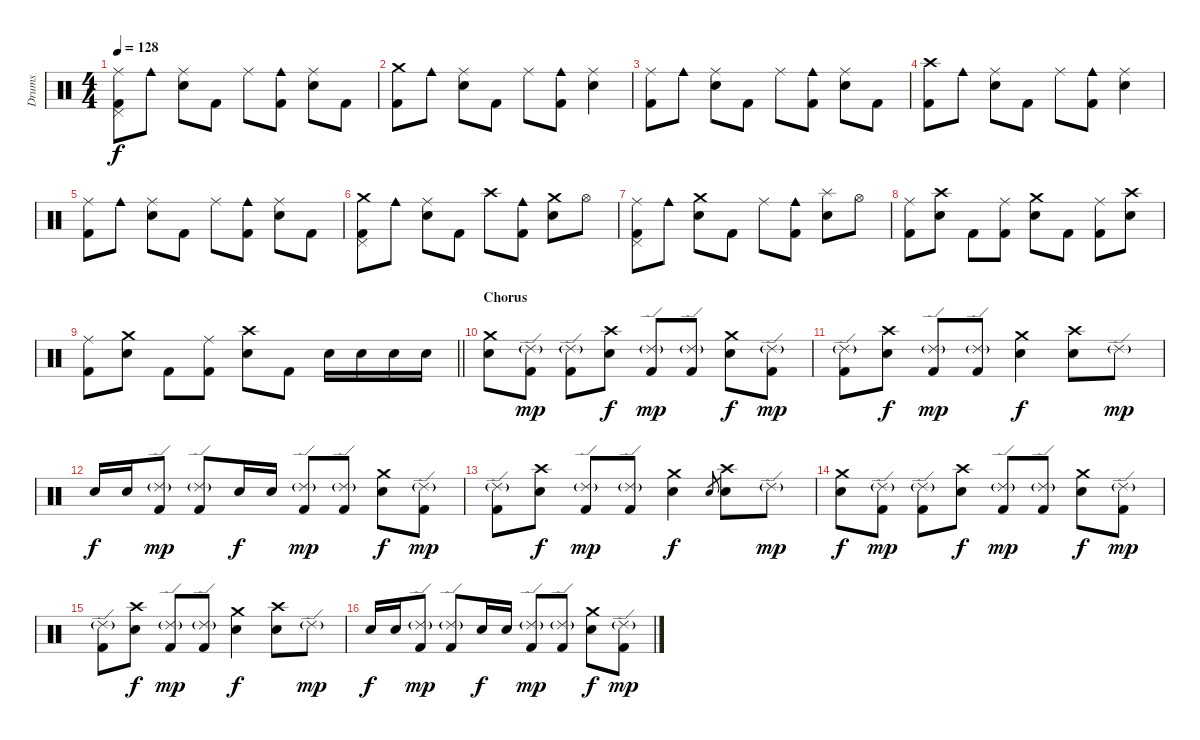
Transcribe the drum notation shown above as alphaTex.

\track ("Drums" "Drums") {instrument percussion}
\staff {score}
\articulation defaults
\ts (4 4)
\tempo 128
\clef neutral
\ks c
("Ride (middle)" "Pedal Hi-Hat (hit)" "Kick (hit) 2").8{dy f} "Cowbell medium (hit)".8 ("Ride (middle)" "Snare (hit) 2").8 "Kick (hit) 2".8 "Ride (middle)".8 ("Cowbell medium (hit)" "Kick (hit) 2").8 ("Ride (middle)" "Snare (hit) 2").8 "Kick (hit) 2".8 |
("Crash medium (hit)" "Kick (hit) 2").8 "Cowbell medium (hit)".8 ("Ride (middle)" "Snare (hit) 2").8 "Kick (hit) 2".8 "Ride (middle)".8 ("Cowbell medium (hit)" "Kick (hit) 2").8 ("Ride (middle)" "Snare (hit) 2").4 |
("Ride (middle)" "Kick (hit) 2").8 "Cowbell medium (hit)".8 ("Ride (middle)" "Snare (hit) 2").8 "Kick (hit) 2".8 "Ride (middle)".8 ("Cowbell medium (hit)" "Kick (hit) 2").8 ("Ride (middle)" "Snare (hit) 2").8 "Kick (hit) 2".8 |
("Crash high (hit)" "Kick (hit) 2").8 "Cowbell medium (hit)".8 ("Ride (middle)" "Snare (hit) 2").8 "Kick (hit) 2".8 "Ride (middle)".8 ("Cowbell medium (hit)" "Kick (hit) 2").8 ("Ride (middle)" "Snare (hit) 2").4 |
("Ride (middle)" "Kick (hit) 2").8 "Cowbell medium (hit)".8 ("Ride (middle)" "Snare (hit) 2").8 "Kick (hit) 2".8 "Ride (middle)".8 ("Cowbell medium (hit)" "Kick (hit) 2").8 ("Ride (middle)" "Snare (hit) 2").8 "Kick (hit) 2".8 |
("Crash medium (hit)" "Pedal Hi-Hat (hit)" "Kick (hit) 2").8 "Cowbell medium (hit)".8 ("Ride (middle)" "Snare (hit) 2").8 "Kick (hit) 2".8 "Crash high (hit)".8 ("Cowbell medium (hit)" "Kick (hit) 2").8 ("Crash medium (hit)" "Snare (hit) 2").8 "Hi-Hat (open)".8 |
("Ride (middle)" "Pedal Hi-Hat (hit)" "Kick (hit) 2").8 "Cowbell medium (hit)".8 ("Crash medium (hit)" "Snare (hit) 2").8 "Kick (hit) 2".8 "Ride (middle)".8 ("Cowbell medium (hit)" "Kick (hit) 2").8 ("Splash (hit)" "Snare (hit) 2").8 "Hi-Hat (open)".8 |
("Ride (middle)" "Kick (hit) 2").8 ("Crash high (hit)" "Snare (hit) 2").8 "Kick (hit) 2".8 ("Ride (middle)" "Kick (hit) 2").8 ("Crash medium (hit)" "Snare (hit) 2").8 "Kick (hit) 2".8 ("Ride (middle)" "Kick (hit) 2").8 ("Crash high (hit)" "Snare (hit) 2").8 |
\barLineRight lightlight
("Ride (middle)" "Kick (hit) 2").8 ("Crash medium (hit)" "Snare (hit) 2").8 "Kick (hit) 2".8 ("Ride (middle)" "Kick (hit) 2").8 ("Crash high (hit)" "Snare (hit) 2").8 "Kick (hit) 2".8 "Snare (hit) 2".16 "Snare (hit) 2".16 "Snare (hit) 2".16 "Snare (hit) 2".16 |
\section ("" "Chorus")
("Crash medium (hit)" "Snare (hit) 2").8 ("Ride (edge) 2"{g} "Kick (hit) 2").8{dy mp} ("Ride (edge) 2"{g} "Kick (hit) 2").8 ("Crash high (hit)" "Snare (hit) 2").8{dy f} ("Ride (edge) 2"{g} "Kick (hit) 2").8{dy mp} ("Ride (edge) 2"{g} "Kick (hit) 2").8 ("Crash medium (hit)" "Snare (hit) 2").8{dy f} ("Ride (edge) 2"{g} "Kick (hit) 2").8{dy mp} |
("Ride (edge) 2"{g} "Kick (hit) 2").8 ("Crash high (hit)" "Snare (hit) 2").8{dy f} ("Ride (edge) 2"{g} "Kick (hit) 2").8{dy mp} ("Ride (edge) 2"{g} "Kick (hit) 2").8 ("Crash medium (hit)" "Snare (hit) 2").4{dy f} ("Crash high (hit)" "Snare (hit) 2").8 "Ride (edge) 2"{g}.8{dy mp} |
"Snare (hit) 2".16{dy f} "Snare (hit) 2".16 ("Ride (edge) 2"{g} "Kick (hit) 2").8{dy mp} ("Ride (edge) 2"{g} "Kick (hit) 2").8 "Snare (hit) 2".16{dy f} "Snare (hit) 2".16 ("Ride (edge) 2"{g} "Kick (hit) 2").8{dy mp} ("Ride (edge) 2"{g} "Kick (hit) 2").8 ("Crash medium (hit)" "Snare (hit) 2").8{dy f} ("Ride (edge) 2"{g} "Kick (hit) 2").8{dy mp} |
("Ride (edge) 2"{g} "Kick (hit) 2").8 ("Crash high (hit)" "Snare (hit) 2").8{dy f} ("Ride (edge) 2"{g} "Kick (hit) 2").8{dy mp} ("Ride (edge) 2"{g} "Kick (hit) 2").8 ("Crash medium (hit)" "Snare (hit) 2").4{dy f} "Snare (hit) 2".8{gr} ("Crash high (hit)" "Snare (hit) 2").8 "Ride (edge) 2"{g}.8{dy mp} |
("Crash medium (hit)" "Snare (hit) 2").8{dy f} ("Ride (edge) 2"{g} "Kick (hit) 2").8{dy mp} ("Ride (edge) 2"{g} "Kick (hit) 2").8 ("Crash high (hit)" "Snare (hit) 2").8{dy f} ("Ride (edge) 2"{g} "Kick (hit) 2").8{dy mp} ("Ride (edge) 2"{g} "Kick (hit) 2").8 ("Crash medium (hit)" "Snare (hit) 2").8{dy f} ("Ride (edge) 2"{g} "Kick (hit) 2").8{dy mp} |
("Ride (edge) 2"{g} "Kick (hit) 2").8 ("Crash high (hit)" "Snare (hit) 2").8{dy f} ("Ride (edge) 2"{g} "Kick (hit) 2").8{dy mp} ("Ride (edge) 2"{g} "Kick (hit) 2").8 ("Crash medium (hit)" "Snare (hit) 2").4{dy f} ("Crash high (hit)" "Snare (hit) 2").8 "Ride (edge) 2"{g}.8{dy mp} |
"Snare (hit) 2".16{dy f} "Snare (hit) 2".16 ("Ride (edge) 2"{g} "Kick (hit) 2").8{dy mp} ("Ride (edge) 2"{g} "Kick (hit) 2").8 "Snare (hit) 2".16{dy f} "Snare (hit) 2".16 ("Ride (edge) 2"{g} "Kick (hit) 2").8{dy mp} ("Ride (edge) 2"{g} "Kick (hit) 2").8 ("Crash medium (hit)" "Snare (hit) 2").8{dy f} ("Ride (edge) 2"{g} "Kick (hit) 2").8{dy mp}
